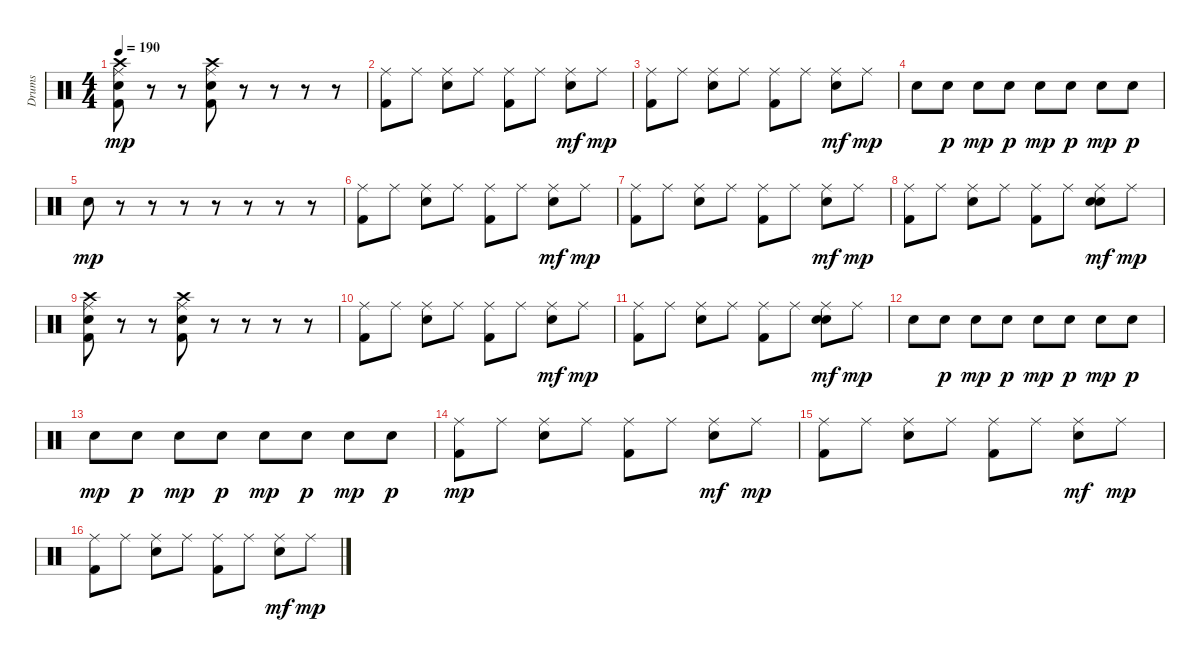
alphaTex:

\track ("Drums" "Drums") {instrument percussion}
\staff {score}
\articulation defaults
\ts (4 4)
\tempo 190
\clef neutral
\ks c
("Ride (middle)" "Crash high (hit)" "Electric Snare (hit)" "Kick (hit) 2").8{dy mp} r.8 r.8 ("Ride (middle)" "Crash high (hit)" "Electric Snare (hit)" "Kick (hit) 2").8 r.8 r.8 r.8 r.8 |
("Ride (middle)" "Kick (hit) 2").8 "Ride (middle)".8 ("Ride (middle)" "Electric Snare (hit)").8 "Ride (middle)".8 ("Ride (middle)" "Kick (hit) 2").8 "Ride (middle)".8 ("Ride (middle)" "Electric Snare (hit)").8{dy mf} "Ride (middle)".8{dy mp} |
("Ride (middle)" "Kick (hit) 2").8 "Ride (middle)".8 ("Ride (middle)" "Electric Snare (hit)").8 "Ride (middle)".8 ("Ride (middle)" "Kick (hit) 2").8 "Ride (middle)".8 ("Ride (middle)" "Electric Snare (hit)").8{dy mf} "Ride (middle)".8{dy mp} |
"Electric Snare (hit)".8 "Electric Snare (hit)".8{dy p} "Electric Snare (hit)".8{dy mp} "Electric Snare (hit)".8{dy p} "Electric Snare (hit)".8{dy mp} "Electric Snare (hit)".8{dy p} "Electric Snare (hit)".8{dy mp} "Electric Snare (hit)".8{dy p} |
"Electric Snare (hit)".8{dy mp} r.8 r.8 r.8 r.8 r.8 r.8 r.8 |
("Ride (middle)" "Kick (hit) 2").8 "Ride (middle)".8 ("Ride (middle)" "Electric Snare (hit)").8 "Ride (middle)".8 ("Ride (middle)" "Kick (hit) 2").8 "Ride (middle)".8 ("Ride (middle)" "Electric Snare (hit)").8{dy mf} "Ride (middle)".8{dy mp} |
("Ride (middle)" "Kick (hit) 2").8 "Ride (middle)".8 ("Ride (middle)" "Electric Snare (hit)").8 "Ride (middle)".8 ("Ride (middle)" "Kick (hit) 2").8 "Ride (middle)".8 ("Ride (middle)" "Electric Snare (hit)").8{dy mf} "Ride (middle)".8{dy mp} |
("Ride (middle)" "Kick (hit) 2").8 "Ride (middle)".8 ("Ride (middle)" "Electric Snare (hit)").8 "Ride (middle)".8 ("Ride (middle)" "Kick (hit) 2").8 "Ride (middle)".8 ("Ride (middle)" "Electric Snare (hit)" "Snare (hit) 2").8{dy mf} "Ride (middle)".8{dy mp} |
("Ride (middle)" "Crash high (hit)" "Electric Snare (hit)" "Kick (hit) 2").8 r.8 r.8 ("Ride (middle)" "Crash high (hit)" "Electric Snare (hit)" "Kick (hit) 2").8 r.8 r.8 r.8 r.8 |
("Ride (middle)" "Kick (hit) 2").8 "Ride (middle)".8 ("Ride (middle)" "Electric Snare (hit)").8 "Ride (middle)".8 ("Ride (middle)" "Kick (hit) 2").8 "Ride (middle)".8 ("Ride (middle)" "Electric Snare (hit)").8{dy mf} "Ride (middle)".8{dy mp} |
("Ride (middle)" "Kick (hit) 2").8 "Ride (middle)".8 ("Ride (middle)" "Electric Snare (hit)").8 "Ride (middle)".8 ("Ride (middle)" "Kick (hit) 2").8 "Ride (middle)".8 ("Ride (middle)" "Electric Snare (hit)" "Snare (hit) 2").8{dy mf} "Ride (middle)".8{dy mp} |
"Electric Snare (hit)".8 "Electric Snare (hit)".8{dy p} "Electric Snare (hit)".8{dy mp} "Electric Snare (hit)".8{dy p} "Electric Snare (hit)".8{dy mp} "Electric Snare (hit)".8{dy p} "Electric Snare (hit)".8{dy mp} "Electric Snare (hit)".8{dy p} |
"Electric Snare (hit)".8{dy mp} "Electric Snare (hit)".8{dy p} "Electric Snare (hit)".8{dy mp} "Electric Snare (hit)".8{dy p} "Electric Snare (hit)".8{dy mp} "Electric Snare (hit)".8{dy p} "Electric Snare (hit)".8{dy mp} "Electric Snare (hit)".8{dy p} |
("Ride (middle)" "Kick (hit) 2").8{dy mp} "Ride (middle)".8 ("Ride (middle)" "Electric Snare (hit)").8 "Ride (middle)".8 ("Ride (middle)" "Kick (hit) 2").8 "Ride (middle)".8 ("Ride (middle)" "Electric Snare (hit)").8{dy mf} "Ride (middle)".8{dy mp} |
("Ride (middle)" "Kick (hit) 2").8 "Ride (middle)".8 ("Ride (middle)" "Electric Snare (hit)").8 "Ride (middle)".8 ("Ride (middle)" "Kick (hit) 2").8 "Ride (middle)".8 ("Ride (middle)" "Electric Snare (hit)").8{dy mf} "Ride (middle)".8{dy mp} |
("Ride (middle)" "Kick (hit) 2").8 "Ride (middle)".8 ("Ride (middle)" "Electric Snare (hit)").8 "Ride (middle)".8 ("Ride (middle)" "Kick (hit) 2").8 "Ride (middle)".8 ("Ride (middle)" "Electric Snare (hit)").8{dy mf} "Ride (middle)".8{dy mp}
